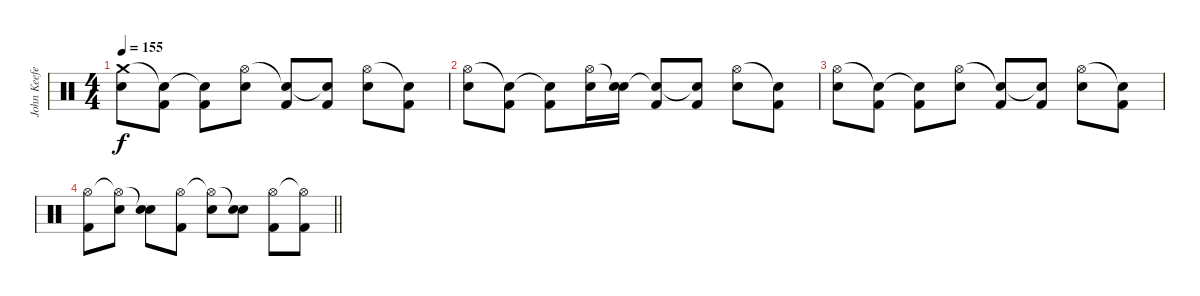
\track ("John Keefe (Percussion)" "John Keefe") {instrument percussion}
\staff {score}
\articulation defaults
\ts (4 4)
\tempo 155
\clef neutral
\ks c
("Electric Snare (hit)" "Crash medium (hit)").8{dy f} ("Kick (hit) 2" "Snare (hit)"{t}).8 ("Kick (hit) 2" "Snare (hit)"{t}).8 ("Electric Snare (hit)" "Hi-Hat (open)").8 ("Kick (hit) 2" "Snare (hit)"{t}).8 ("Kick (hit) 2" "Snare (hit)"{t}).8 ("Electric Snare (hit)" "Hi-Hat (open)").8 ("Kick (hit) 2" "Snare (hit)"{t}).8 |
("Electric Snare (hit)" "Hi-Hat (open)").8 ("Kick (hit) 2" "Snare (hit)"{t}).8 ("Kick (hit) 2" "Snare (hit)"{t}).8 ("Electric Snare (hit)" "Hi-Hat (open)").16 ("Electric Snare (hit)" "Snare (hit)"{t}).16 ("Kick (hit) 2" "Snare (hit)"{t}).8 ("Kick (hit) 2" "Snare (hit)"{t}).8 ("Electric Snare (hit)" "Hi-Hat (open)").8 ("Kick (hit) 2" "Snare (hit)"{t}).8 |
("Electric Snare (hit)" "Hi-Hat (open)").8 ("Kick (hit) 2" "Snare (hit)"{t}).8 ("Kick (hit) 2" "Snare (hit)"{t}).8 ("Electric Snare (hit)" "Hi-Hat (open)").8 ("Kick (hit) 2" "Snare (hit)"{t}).8 ("Kick (hit) 2" "Snare (hit)"{t}).8 ("Electric Snare (hit)" "Hi-Hat (open)").8 ("Kick (hit) 2" "Snare (hit)"{t}).8 |
\barLineRight lightlight
("Kick (hit) 2" "Hi-Hat (open)").8 ("Electric Snare (hit)" "Hi-Hat (open)"{t}).8 ("Electric Snare (hit)" "Snare (hit)"{t}).8 ("Kick (hit) 2" "Hi-Hat (open)").8 ("Electric Snare (hit)" "Hi-Hat (open)"{t}).8 ("Electric Snare (hit)" "Snare (hit)"{t}).8 ("Kick (hit) 2" "Hi-Hat (open)").8 ("Kick (hit) 2" "Hi-Hat (open)"{t}).8
